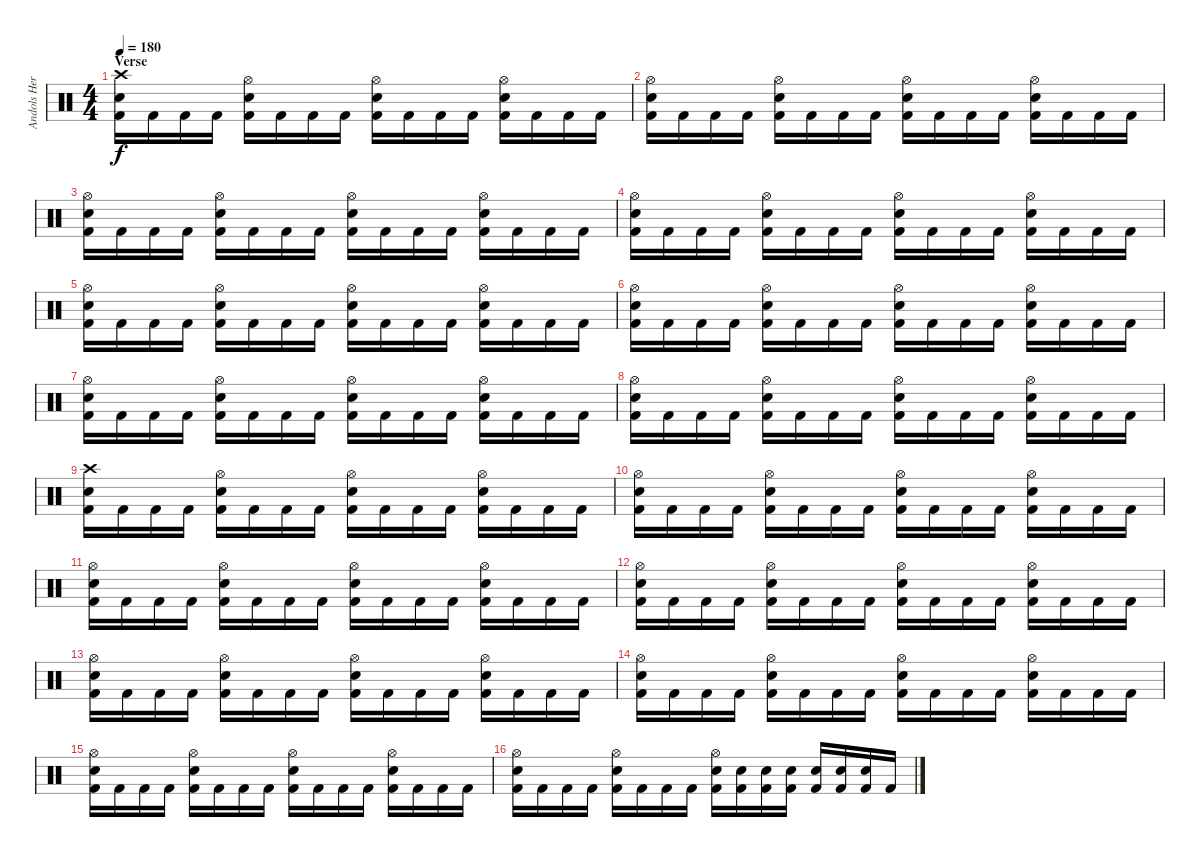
\track ("Andols Herrick" "Andols Her") {instrument percussion}
\staff {score}
\articulation defaults
\ts (4 4)
\section ("" "Verse")
\tempo 180
\clef neutral
\ks c
("Crash high (hit)" "Electric Snare (hit)" "Kick (hit) 2").16{dy f} "Kick (hit) 2".16 "Kick (hit) 2".16 "Kick (hit) 2".16 ("Hi-Hat (open)" "Electric Snare (hit)" "Kick (hit) 2").16 "Kick (hit) 2".16 "Kick (hit) 2".16 "Kick (hit) 2".16 ("Hi-Hat (open)" "Electric Snare (hit)" "Kick (hit) 2").16 "Kick (hit) 2".16 "Kick (hit) 2".16 "Kick (hit) 2".16 ("Hi-Hat (open)" "Electric Snare (hit)" "Kick (hit) 2").16 "Kick (hit) 2".16 "Kick (hit) 2".16 "Kick (hit) 2".16 |
("Hi-Hat (open)" "Electric Snare (hit)" "Kick (hit) 2").16 "Kick (hit) 2".16 "Kick (hit) 2".16 "Kick (hit) 2".16 ("Hi-Hat (open)" "Electric Snare (hit)" "Kick (hit) 2").16 "Kick (hit) 2".16 "Kick (hit) 2".16 "Kick (hit) 2".16 ("Hi-Hat (open)" "Electric Snare (hit)" "Kick (hit) 2").16 "Kick (hit) 2".16 "Kick (hit) 2".16 "Kick (hit) 2".16 ("Hi-Hat (open)" "Electric Snare (hit)" "Kick (hit) 2").16 "Kick (hit) 2".16 "Kick (hit) 2".16 "Kick (hit) 2".16 |
("Hi-Hat (open)" "Electric Snare (hit)" "Kick (hit) 2").16 "Kick (hit) 2".16 "Kick (hit) 2".16 "Kick (hit) 2".16 ("Hi-Hat (open)" "Electric Snare (hit)" "Kick (hit) 2").16 "Kick (hit) 2".16 "Kick (hit) 2".16 "Kick (hit) 2".16 ("Hi-Hat (open)" "Electric Snare (hit)" "Kick (hit) 2").16 "Kick (hit) 2".16 "Kick (hit) 2".16 "Kick (hit) 2".16 ("Hi-Hat (open)" "Electric Snare (hit)" "Kick (hit) 2").16 "Kick (hit) 2".16 "Kick (hit) 2".16 "Kick (hit) 2".16 |
("Hi-Hat (open)" "Electric Snare (hit)" "Kick (hit) 2").16 "Kick (hit) 2".16 "Kick (hit) 2".16 "Kick (hit) 2".16 ("Hi-Hat (open)" "Electric Snare (hit)" "Kick (hit) 2").16 "Kick (hit) 2".16 "Kick (hit) 2".16 "Kick (hit) 2".16 ("Hi-Hat (open)" "Electric Snare (hit)" "Kick (hit) 2").16 "Kick (hit) 2".16 "Kick (hit) 2".16 "Kick (hit) 2".16 ("Hi-Hat (open)" "Electric Snare (hit)" "Kick (hit) 2").16 "Kick (hit) 2".16 "Kick (hit) 2".16 "Kick (hit) 2".16 |
("Hi-Hat (open)" "Electric Snare (hit)" "Kick (hit) 2").16 "Kick (hit) 2".16 "Kick (hit) 2".16 "Kick (hit) 2".16 ("Hi-Hat (open)" "Electric Snare (hit)" "Kick (hit) 2").16 "Kick (hit) 2".16 "Kick (hit) 2".16 "Kick (hit) 2".16 ("Hi-Hat (open)" "Electric Snare (hit)" "Kick (hit) 2").16 "Kick (hit) 2".16 "Kick (hit) 2".16 "Kick (hit) 2".16 ("Hi-Hat (open)" "Electric Snare (hit)" "Kick (hit) 2").16 "Kick (hit) 2".16 "Kick (hit) 2".16 "Kick (hit) 2".16 |
("Hi-Hat (open)" "Electric Snare (hit)" "Kick (hit) 2").16 "Kick (hit) 2".16 "Kick (hit) 2".16 "Kick (hit) 2".16 ("Hi-Hat (open)" "Electric Snare (hit)" "Kick (hit) 2").16 "Kick (hit) 2".16 "Kick (hit) 2".16 "Kick (hit) 2".16 ("Hi-Hat (open)" "Electric Snare (hit)" "Kick (hit) 2").16 "Kick (hit) 2".16 "Kick (hit) 2".16 "Kick (hit) 2".16 ("Hi-Hat (open)" "Electric Snare (hit)" "Kick (hit) 2").16 "Kick (hit) 2".16 "Kick (hit) 2".16 "Kick (hit) 2".16 |
("Hi-Hat (open)" "Electric Snare (hit)" "Kick (hit) 2").16 "Kick (hit) 2".16 "Kick (hit) 2".16 "Kick (hit) 2".16 ("Hi-Hat (open)" "Electric Snare (hit)" "Kick (hit) 2").16 "Kick (hit) 2".16 "Kick (hit) 2".16 "Kick (hit) 2".16 ("Hi-Hat (open)" "Electric Snare (hit)" "Kick (hit) 2").16 "Kick (hit) 2".16 "Kick (hit) 2".16 "Kick (hit) 2".16 ("Hi-Hat (open)" "Electric Snare (hit)" "Kick (hit) 2").16 "Kick (hit) 2".16 "Kick (hit) 2".16 "Kick (hit) 2".16 |
("Hi-Hat (open)" "Electric Snare (hit)" "Kick (hit) 2").16 "Kick (hit) 2".16 "Kick (hit) 2".16 "Kick (hit) 2".16 ("Hi-Hat (open)" "Electric Snare (hit)" "Kick (hit) 2").16 "Kick (hit) 2".16 "Kick (hit) 2".16 "Kick (hit) 2".16 ("Hi-Hat (open)" "Electric Snare (hit)" "Kick (hit) 2").16 "Kick (hit) 2".16 "Kick (hit) 2".16 "Kick (hit) 2".16 ("Hi-Hat (open)" "Electric Snare (hit)" "Kick (hit) 2").16 "Kick (hit) 2".16 "Kick (hit) 2".16 "Kick (hit) 2".16 |
("Crash high (hit)" "Electric Snare (hit)" "Kick (hit) 2").16 "Kick (hit) 2".16 "Kick (hit) 2".16 "Kick (hit) 2".16 ("Hi-Hat (open)" "Electric Snare (hit)" "Kick (hit) 2").16 "Kick (hit) 2".16 "Kick (hit) 2".16 "Kick (hit) 2".16 ("Hi-Hat (open)" "Electric Snare (hit)" "Kick (hit) 2").16 "Kick (hit) 2".16 "Kick (hit) 2".16 "Kick (hit) 2".16 ("Hi-Hat (open)" "Electric Snare (hit)" "Kick (hit) 2").16 "Kick (hit) 2".16 "Kick (hit) 2".16 "Kick (hit) 2".16 |
("Hi-Hat (open)" "Electric Snare (hit)" "Kick (hit) 2").16 "Kick (hit) 2".16 "Kick (hit) 2".16 "Kick (hit) 2".16 ("Hi-Hat (open)" "Electric Snare (hit)" "Kick (hit) 2").16 "Kick (hit) 2".16 "Kick (hit) 2".16 "Kick (hit) 2".16 ("Hi-Hat (open)" "Electric Snare (hit)" "Kick (hit) 2").16 "Kick (hit) 2".16 "Kick (hit) 2".16 "Kick (hit) 2".16 ("Hi-Hat (open)" "Electric Snare (hit)" "Kick (hit) 2").16 "Kick (hit) 2".16 "Kick (hit) 2".16 "Kick (hit) 2".16 |
("Hi-Hat (open)" "Electric Snare (hit)" "Kick (hit) 2").16 "Kick (hit) 2".16 "Kick (hit) 2".16 "Kick (hit) 2".16 ("Hi-Hat (open)" "Electric Snare (hit)" "Kick (hit) 2").16 "Kick (hit) 2".16 "Kick (hit) 2".16 "Kick (hit) 2".16 ("Hi-Hat (open)" "Electric Snare (hit)" "Kick (hit) 2").16 "Kick (hit) 2".16 "Kick (hit) 2".16 "Kick (hit) 2".16 ("Hi-Hat (open)" "Electric Snare (hit)" "Kick (hit) 2").16 "Kick (hit) 2".16 "Kick (hit) 2".16 "Kick (hit) 2".16 |
("Hi-Hat (open)" "Electric Snare (hit)" "Kick (hit) 2").16 "Kick (hit) 2".16 "Kick (hit) 2".16 "Kick (hit) 2".16 ("Hi-Hat (open)" "Electric Snare (hit)" "Kick (hit) 2").16 "Kick (hit) 2".16 "Kick (hit) 2".16 "Kick (hit) 2".16 ("Hi-Hat (open)" "Electric Snare (hit)" "Kick (hit) 2").16 "Kick (hit) 2".16 "Kick (hit) 2".16 "Kick (hit) 2".16 ("Hi-Hat (open)" "Electric Snare (hit)" "Kick (hit) 2").16 "Kick (hit) 2".16 "Kick (hit) 2".16 "Kick (hit) 2".16 |
("Hi-Hat (open)" "Electric Snare (hit)" "Kick (hit) 2").16 "Kick (hit) 2".16 "Kick (hit) 2".16 "Kick (hit) 2".16 ("Hi-Hat (open)" "Electric Snare (hit)" "Kick (hit) 2").16 "Kick (hit) 2".16 "Kick (hit) 2".16 "Kick (hit) 2".16 ("Hi-Hat (open)" "Electric Snare (hit)" "Kick (hit) 2").16 "Kick (hit) 2".16 "Kick (hit) 2".16 "Kick (hit) 2".16 ("Hi-Hat (open)" "Electric Snare (hit)" "Kick (hit) 2").16 "Kick (hit) 2".16 "Kick (hit) 2".16 "Kick (hit) 2".16 |
("Hi-Hat (open)" "Electric Snare (hit)" "Kick (hit) 2").16 "Kick (hit) 2".16 "Kick (hit) 2".16 "Kick (hit) 2".16 ("Hi-Hat (open)" "Electric Snare (hit)" "Kick (hit) 2").16 "Kick (hit) 2".16 "Kick (hit) 2".16 "Kick (hit) 2".16 ("Hi-Hat (open)" "Electric Snare (hit)" "Kick (hit) 2").16 "Kick (hit) 2".16 "Kick (hit) 2".16 "Kick (hit) 2".16 ("Hi-Hat (open)" "Electric Snare (hit)" "Kick (hit) 2").16 "Kick (hit) 2".16 "Kick (hit) 2".16 "Kick (hit) 2".16 |
("Hi-Hat (open)" "Electric Snare (hit)" "Kick (hit) 2").16 "Kick (hit) 2".16 "Kick (hit) 2".16 "Kick (hit) 2".16 ("Hi-Hat (open)" "Electric Snare (hit)" "Kick (hit) 2").16 "Kick (hit) 2".16 "Kick (hit) 2".16 "Kick (hit) 2".16 ("Hi-Hat (open)" "Electric Snare (hit)" "Kick (hit) 2").16 "Kick (hit) 2".16 "Kick (hit) 2".16 "Kick (hit) 2".16 ("Hi-Hat (open)" "Electric Snare (hit)" "Kick (hit) 2").16 "Kick (hit) 2".16 "Kick (hit) 2".16 "Kick (hit) 2".16 |
("Hi-Hat (open)" "Electric Snare (hit)" "Kick (hit) 2").16 "Kick (hit) 2".16 "Kick (hit) 2".16 "Kick (hit) 2".16 ("Hi-Hat (open)" "Electric Snare (hit)" "Kick (hit) 2").16 "Kick (hit) 2".16 "Kick (hit) 2".16 "Kick (hit) 2".16 ("Hi-Hat (open)" "Electric Snare (hit)" "Kick (hit) 2").16 ("Electric Snare (hit)" "Kick (hit) 2").16 ("Electric Snare (hit)" "Kick (hit) 2").16 ("Electric Snare (hit)" "Kick (hit) 2").16 ("Electric Snare (hit)" "Kick (hit) 2").16 ("Electric Snare (hit)" "Kick (hit) 2").16 ("Electric Snare (hit)" "Kick (hit) 2").16 "Kick (hit) 2".16
